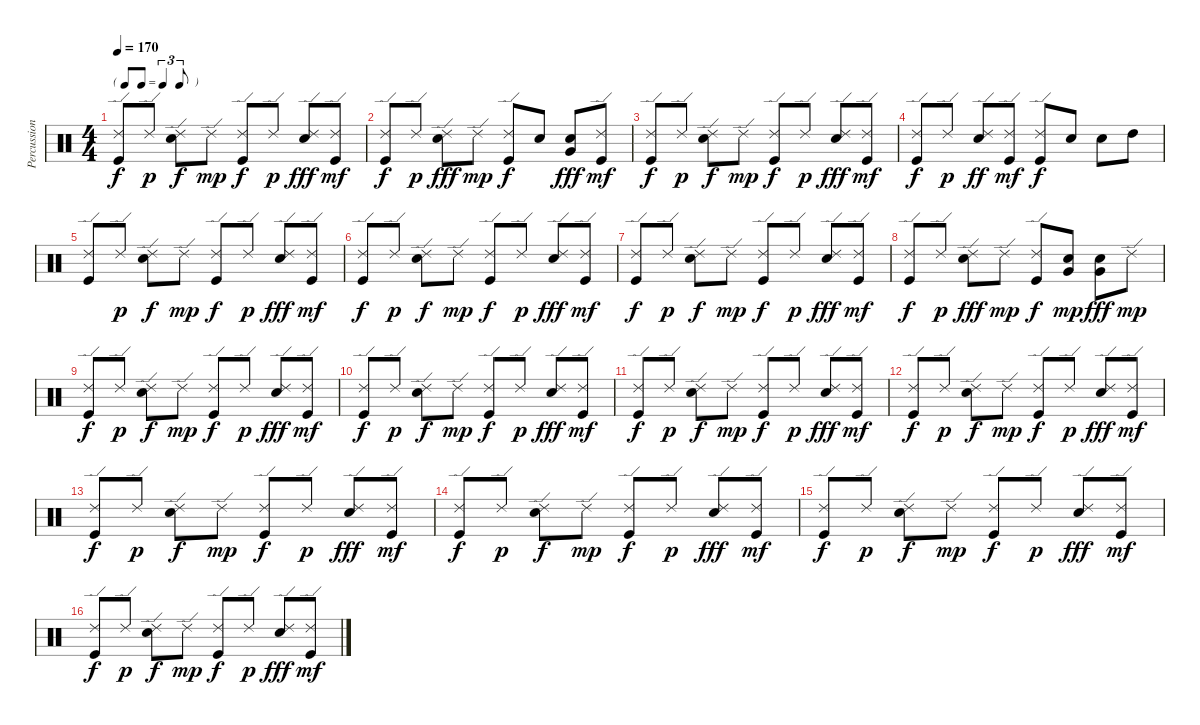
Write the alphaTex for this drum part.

\track ("Percussion" "Percussion") {instrument percussion}
\staff {score}
\articulation defaults
\ts (4 4)
\tf triplet8th
\tempo 170
\clef neutral
\ks c
("Ride (edge) 2" "Kick (hit)").8{dy f} "Ride (edge) 2".8{dy p} ("Ride (edge) 2" "Snare (hit) 2").8{dy f} "Ride (edge) 2".8{dy mp} ("Ride (edge) 2" "Kick (hit)").8{dy f} "Ride (edge) 2".8{dy p} ("Ride (edge) 2" "Snare (hit) 2").8{dy fff} ("Ride (edge) 2" "Kick (hit)").8{dy mf} |
("Ride (edge) 2" "Kick (hit)").8{dy f} "Ride (edge) 2".8{dy p} ("Ride (edge) 2" "Snare (hit) 2").8{dy fff} "Ride (edge) 2".8{dy mp} ("Ride (edge) 2" "Kick (hit)").8{dy f} "Snare (hit) 2".8 ("Very Low Tom (hit)" "Snare (hit) 2").8{dy fff} ("Ride (edge) 2" "Kick (hit)").8{dy mf} |
("Ride (edge) 2" "Kick (hit)").8{dy f} "Ride (edge) 2".8{dy p} ("Ride (edge) 2" "Snare (hit) 2").8{dy f} "Ride (edge) 2".8{dy mp} ("Ride (edge) 2" "Kick (hit)").8{dy f} "Ride (edge) 2".8{dy p} ("Ride (edge) 2" "Snare (hit) 2").8{dy fff} ("Ride (edge) 2" "Kick (hit)").8{dy mf} |
("Ride (edge) 2" "Kick (hit)").8{dy f} "Ride (edge) 2".8{dy p} ("Ride (edge) 2" "Snare (hit) 2").8{dy ff} ("Ride (edge) 2" "Kick (hit)").8{dy mf} ("Ride (edge) 2" "Kick (hit)").8{dy f} "Snare (hit) 2".8 "Snare (hit) 2".8 "High Tom (hit)".8 |
("Ride (edge) 2" "Kick (hit)").8 "Ride (edge) 2".8{dy p} ("Ride (edge) 2" "Snare (hit) 2").8{dy f} "Ride (edge) 2".8{dy mp} ("Ride (edge) 2" "Kick (hit)").8{dy f} "Ride (edge) 2".8{dy p} ("Ride (edge) 2" "Snare (hit) 2").8{dy fff} ("Ride (edge) 2" "Kick (hit)").8{dy mf} |
("Ride (edge) 2" "Kick (hit)").8{dy f} "Ride (edge) 2".8{dy p} ("Ride (edge) 2" "Snare (hit) 2").8{dy f} "Ride (edge) 2".8{dy mp} ("Ride (edge) 2" "Kick (hit)").8{dy f} "Ride (edge) 2".8{dy p} ("Ride (edge) 2" "Snare (hit) 2").8{dy fff} ("Ride (edge) 2" "Kick (hit)").8{dy mf} |
("Ride (edge) 2" "Kick (hit)").8{dy f} "Ride (edge) 2".8{dy p} ("Ride (edge) 2" "Snare (hit) 2").8{dy f} "Ride (edge) 2".8{dy mp} ("Ride (edge) 2" "Kick (hit)").8{dy f} "Ride (edge) 2".8{dy p} ("Ride (edge) 2" "Snare (hit) 2").8{dy fff} ("Ride (edge) 2" "Kick (hit)").8{dy mf} |
("Ride (edge) 2" "Kick (hit)").8{dy f} "Ride (edge) 2".8{dy p} ("Ride (edge) 2" "Snare (hit) 2").8{dy fff} "Ride (edge) 2".8{dy mp} ("Ride (edge) 2" "Kick (hit)").8{dy f} ("Very Low Tom (hit)" "Snare (hit) 2").8{dy mp} ("Very Low Tom (hit)" "Snare (hit) 2").8{dy fff} "Ride (edge) 2".8{dy mp} |
("Ride (edge) 2" "Kick (hit)").8{dy f} "Ride (edge) 2".8{dy p} ("Ride (edge) 2" "Snare (hit) 2").8{dy f} "Ride (edge) 2".8{dy mp} ("Ride (edge) 2" "Kick (hit)").8{dy f} "Ride (edge) 2".8{dy p} ("Ride (edge) 2" "Snare (hit) 2").8{dy fff} ("Ride (edge) 2" "Kick (hit)").8{dy mf} |
("Ride (edge) 2" "Kick (hit)").8{dy f} "Ride (edge) 2".8{dy p} ("Ride (edge) 2" "Snare (hit) 2").8{dy f} "Ride (edge) 2".8{dy mp} ("Ride (edge) 2" "Kick (hit)").8{dy f} "Ride (edge) 2".8{dy p} ("Ride (edge) 2" "Snare (hit) 2").8{dy fff} ("Ride (edge) 2" "Kick (hit)").8{dy mf} |
("Ride (edge) 2" "Kick (hit)").8{dy f} "Ride (edge) 2".8{dy p} ("Ride (edge) 2" "Snare (hit) 2").8{dy f} "Ride (edge) 2".8{dy mp} ("Ride (edge) 2" "Kick (hit)").8{dy f} "Ride (edge) 2".8{dy p} ("Ride (edge) 2" "Snare (hit) 2").8{dy fff} ("Ride (edge) 2" "Kick (hit)").8{dy mf} |
("Ride (edge) 2" "Kick (hit)").8{dy f} "Ride (edge) 2".8{dy p} ("Ride (edge) 2" "Snare (hit) 2").8{dy f} "Ride (edge) 2".8{dy mp} ("Ride (edge) 2" "Kick (hit)").8{dy f} "Ride (edge) 2".8{dy p} ("Ride (edge) 2" "Snare (hit) 2").8{dy fff} ("Ride (edge) 2" "Kick (hit)").8{dy mf} |
("Ride (edge) 2" "Kick (hit)").8{dy f} "Ride (edge) 2".8{dy p} ("Ride (edge) 2" "Snare (hit) 2").8{dy f} "Ride (edge) 2".8{dy mp} ("Ride (edge) 2" "Kick (hit)").8{dy f} "Ride (edge) 2".8{dy p} ("Ride (edge) 2" "Snare (hit) 2").8{dy fff} ("Ride (edge) 2" "Kick (hit)").8{dy mf} |
("Ride (edge) 2" "Kick (hit)").8{dy f} "Ride (edge) 2".8{dy p} ("Ride (edge) 2" "Snare (hit) 2").8{dy f} "Ride (edge) 2".8{dy mp} ("Ride (edge) 2" "Kick (hit)").8{dy f} "Ride (edge) 2".8{dy p} ("Ride (edge) 2" "Snare (hit) 2").8{dy fff} ("Ride (edge) 2" "Kick (hit)").8{dy mf} |
("Ride (edge) 2" "Kick (hit)").8{dy f} "Ride (edge) 2".8{dy p} ("Ride (edge) 2" "Snare (hit) 2").8{dy f} "Ride (edge) 2".8{dy mp} ("Ride (edge) 2" "Kick (hit)").8{dy f} "Ride (edge) 2".8{dy p} ("Ride (edge) 2" "Snare (hit) 2").8{dy fff} ("Ride (edge) 2" "Kick (hit)").8{dy mf} |
("Ride (edge) 2" "Kick (hit)").8{dy f} "Ride (edge) 2".8{dy p} ("Ride (edge) 2" "Snare (hit) 2").8{dy f} "Ride (edge) 2".8{dy mp} ("Ride (edge) 2" "Kick (hit)").8{dy f} "Ride (edge) 2".8{dy p} ("Ride (edge) 2" "Snare (hit) 2").8{dy fff} ("Ride (edge) 2" "Kick (hit)").8{dy mf}
